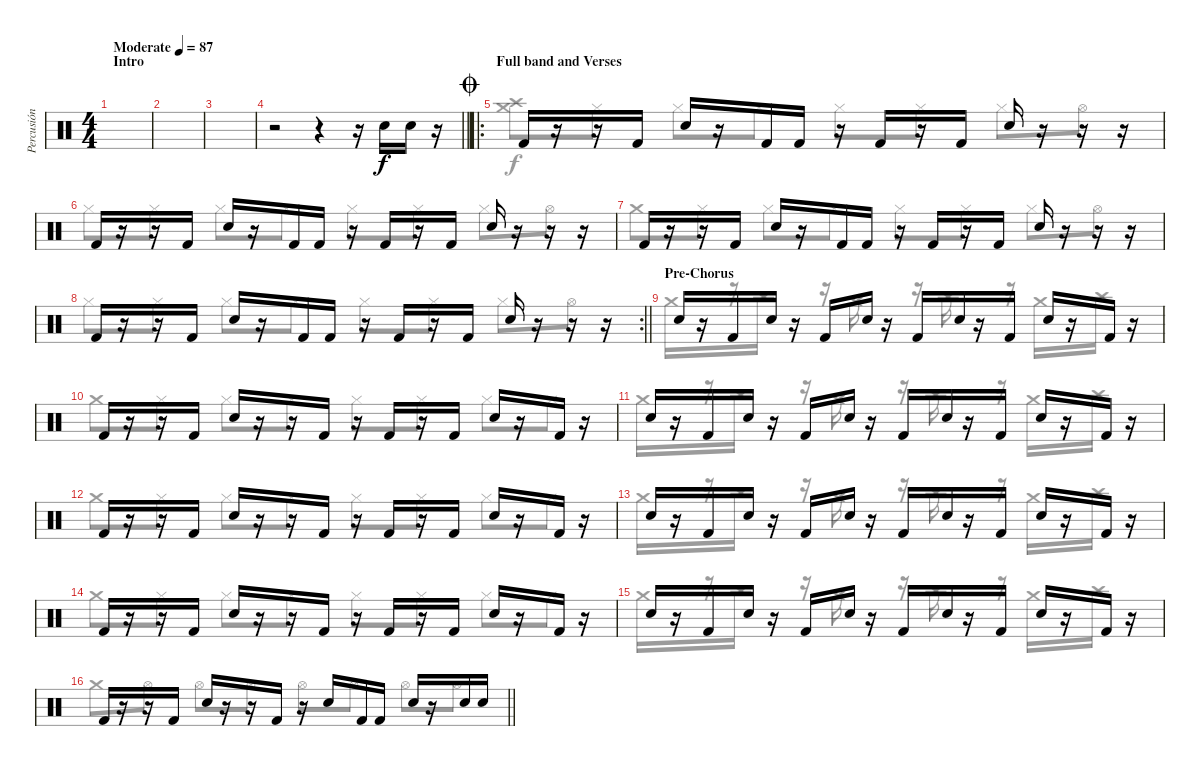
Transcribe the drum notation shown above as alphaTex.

\track ("Percusión" "Percusión") {instrument percussion}
\staff {score}
\articulation defaults
\voice
\ts (4 4)
\section ("" "Intro")
\tempo (87 "Moderate")
\clef neutral
\ks c
|
|
|
\barLineRight lightlight
r.2 r.4 r.16 "Snare (hit) 2".16 "Snare (hit) 2".16 r.16 |
\ro
\section ("" "Full band and Verses")
\jump coda "Kick (hit) 2".16
r.16 r.16 "Kick (hit) 2".16 "Snare (hit) 2".16 r.16 "Kick (hit) 2".16 "Kick (hit) 2".16 r.16 "Kick (hit) 2".16 r.16 "Kick (hit) 2".16 "Snare (hit) 2".16 r.16 r.16 r.16 |
"Kick (hit) 2".16 r.16 r.16 "Kick (hit) 2".16 "Snare (hit) 2".16 r.16 "Kick (hit) 2".16 "Kick (hit) 2".16 r.16 "Kick (hit) 2".16 r.16 "Kick (hit) 2".16 "Snare (hit) 2".16 r.16 r.16 r.16 |
"Kick (hit) 2".16 r.16 r.16 "Kick (hit) 2".16 "Snare (hit) 2".16 r.16 "Kick (hit) 2".16 "Kick (hit) 2".16 r.16 "Kick (hit) 2".16 r.16 "Kick (hit) 2".16 "Snare (hit) 2".16 r.16 r.16 r.16 |
\rc 2
\barLineRight lightlight "Kick (hit) 2".16
r.16 r.16 "Kick (hit) 2".16 "Snare (hit) 2".16 r.16 "Kick (hit) 2".16 "Kick (hit) 2".16 r.16 "Kick (hit) 2".16 r.16 "Kick (hit) 2".16 "Snare (hit) 2".16 r.16 r.16 r.16 |
\section ("" "Pre-Chorus")
"Snare (hit) 2".16 r.16 "Kick (hit) 2".16 "Snare (hit) 2".16 r.16 "Kick (hit) 2".16 "Snare (hit) 2".16 r.16 "Kick (hit) 2".16 "Snare (hit) 2".16 r.16 "Kick (hit) 2".16 "Snare (hit) 2".16 r.16 "Kick (hit) 2".16 r.16 |
"Kick (hit) 2".16 r.16 r.16 "Kick (hit) 2".16 "Snare (hit) 2".16 r.16 r.16 "Kick (hit) 2".16 r.16 "Kick (hit) 2".16 r.16 "Kick (hit) 2".16 "Snare (hit) 2".16 r.16 "Kick (hit) 2".16 r.16 |
"Snare (hit) 2".16 r.16 "Kick (hit) 2".16 "Snare (hit) 2".16 r.16 "Kick (hit) 2".16 "Snare (hit) 2".16 r.16 "Kick (hit) 2".16 "Snare (hit) 2".16 r.16 "Kick (hit) 2".16 "Snare (hit) 2".16 r.16 "Kick (hit) 2".16 r.16 |
"Kick (hit) 2".16 r.16 r.16 "Kick (hit) 2".16 "Snare (hit) 2".16 r.16 r.16 "Kick (hit) 2".16 r.16 "Kick (hit) 2".16 r.16 "Kick (hit) 2".16 "Snare (hit) 2".16 r.16 "Kick (hit) 2".16 r.16 |
"Snare (hit) 2".16 r.16 "Kick (hit) 2".16 "Snare (hit) 2".16 r.16 "Kick (hit) 2".16 "Snare (hit) 2".16 r.16 "Kick (hit) 2".16 "Snare (hit) 2".16 r.16 "Kick (hit) 2".16 "Snare (hit) 2".16 r.16 "Kick (hit) 2".16 r.16 |
"Kick (hit) 2".16 r.16 r.16 "Kick (hit) 2".16 "Snare (hit) 2".16 r.16 r.16 "Kick (hit) 2".16 r.16 "Kick (hit) 2".16 r.16 "Kick (hit) 2".16 "Snare (hit) 2".16 r.16 "Kick (hit) 2".16 r.16 |
"Snare (hit) 2".16 r.16 "Kick (hit) 2".16 "Snare (hit) 2".16 r.16 "Kick (hit) 2".16 "Snare (hit) 2".16 r.16 "Kick (hit) 2".16 "Snare (hit) 2".16 r.16 "Kick (hit) 2".16 "Snare (hit) 2".16 r.16 "Kick (hit) 2".16 r.16 |
\barLineRight lightlight "Kick (hit) 2".16
r.16 r.16 "Kick (hit) 2".16 "Snare (hit) 2".16 r.16 r.16 "Kick (hit) 2".16 r.16 "Snare (hit) 2".16 "Kick (hit) 2".16 "Kick (hit) 2".16 "Snare (hit) 2".16 r.16 "Snare (hit) 2".16 "Snare (hit) 2".16
\voice
\clef neutral
\ottava regular
\simile none
\ks c
|
|
|
\barLineRight lightlight
|
("Crash medium (hit)" "Crash high (hit)").8 "Hi-Hat (closed)".8 "Hi-Hat (closed)".8 "Hi-Hat (closed)".8 "Hi-Hat (closed)".8 "Hi-Hat (closed)".8 "Hi-Hat (closed)".8 "Hi-Hat (open)".8 |
"Hi-Hat (closed)".8 "Hi-Hat (closed)".8 "Hi-Hat (closed)".8 "Hi-Hat (closed)".8 "Hi-Hat (closed)".8 "Hi-Hat (closed)".8 "Hi-Hat (closed)".8 "Hi-Hat (open)".8 |
"Crash medium (hit)".8 "Hi-Hat (closed)".8 "Hi-Hat (closed)".8 "Hi-Hat (closed)".8 "Hi-Hat (closed)".8 "Hi-Hat (closed)".8 "Hi-Hat (closed)".8 "Hi-Hat (open)".8 |
\barLineRight lightlight "Hi-Hat (closed)".8 "Hi-Hat (closed)".8 "Hi-Hat (closed)".8 "Hi-Hat (closed)".8 "Hi-Hat (closed)".8 "Hi-Hat (closed)".8 "Hi-Hat (closed)".8 "Hi-Hat (open)".8
|
"Crash medium (hit)".16 r.16 r.16 "Crash high (hit)".16 r.16 r.16 "Crash medium (hit)".16 r.16 r.16 "Crash high (hit)".16 r.16 r.16 "Crash medium (hit)".16 r.16 "Crash high (hit)".16 r.16 |
"Crash medium (hit)".8 "Hi-Hat (closed)".8 "Hi-Hat (closed)".8 "Hi-Hat (closed)".8 "Hi-Hat (closed)".8 "Hi-Hat (closed)".8 "Hi-Hat (closed)".8 "Hi-Hat (closed)".8 |
"Crash medium (hit)".16 r.16 r.16 "Crash high (hit)".16 r.16 r.16 "Crash medium (hit)".16 r.16 r.16 "Crash high (hit)".16 r.16 r.16 "Crash medium (hit)".16 r.16 "Crash high (hit)".16 r.16 |
"Crash medium (hit)".8 "Hi-Hat (closed)".8 "Hi-Hat (closed)".8 "Hi-Hat (closed)".8 "Hi-Hat (closed)".8 "Hi-Hat (closed)".8 "Hi-Hat (closed)".8 "Hi-Hat (closed)".8 |
"Crash medium (hit)".16 r.16 r.16 "Crash high (hit)".16 r.16 r.16 "Crash medium (hit)".16 r.16 r.16 "Crash high (hit)".16 r.16 r.16 "Crash medium (hit)".16 r.16 "Crash high (hit)".16 r.16 |
"Crash medium (hit)".8 "Hi-Hat (closed)".8 "Hi-Hat (closed)".8 "Hi-Hat (closed)".8 "Hi-Hat (closed)".8 "Hi-Hat (closed)".8 "Hi-Hat (closed)".8 "Hi-Hat (closed)".8 |
"Crash medium (hit)".16 r.16 r.16 "Crash high (hit)".16 r.16 r.16 "Crash medium (hit)".16 r.16 r.16 "Crash high (hit)".16 r.16 r.16 "Crash medium (hit)".16 r.16 "Crash high (hit)".16 r.16 |
\barLineRight lightlight "Crash medium (hit)".8 "Hi-Hat (open)".8 "Hi-Hat (open)".8 "Hi-Hat (open)".8 "Hi-Hat (open)".8 "Hi-Hat (open)".8 "Hi-Hat (open)".8 "Hi-Hat (open)".8
